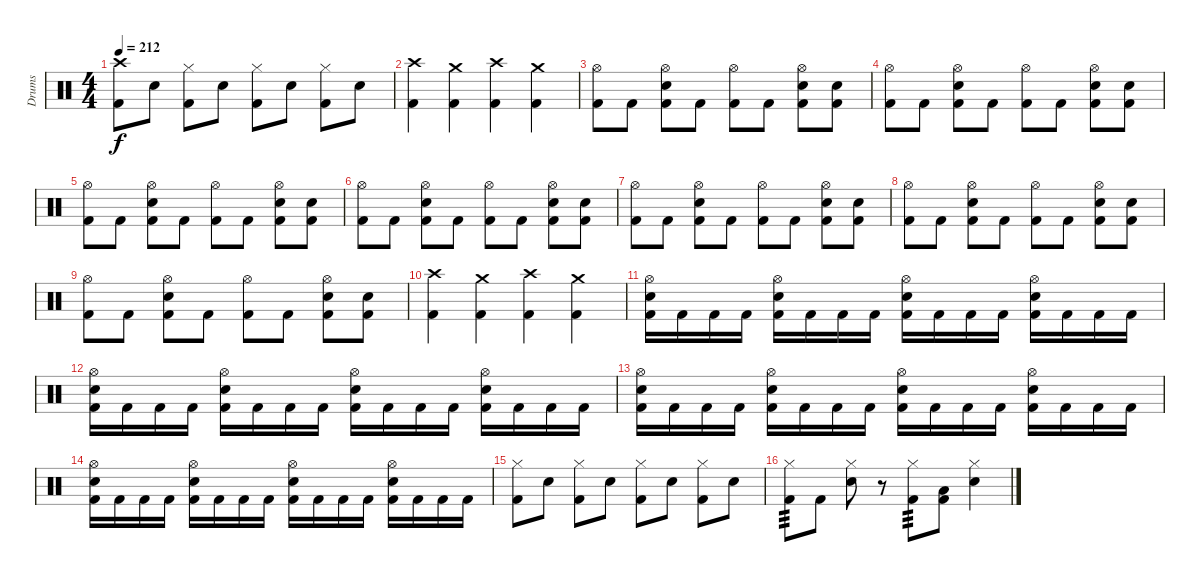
\track ("Drums" "Drums") {instrument percussion}
\staff {score}
\articulation defaults
\ts (4 4)
\tempo 212
\clef neutral
\ks c
("Crash high (hit)" "Kick (hit) 2").8{dy f} "Snare (hit) 2".8 ("Hi-Hat (closed)" "Kick (hit) 2").8 "Snare (hit) 2".8 ("Hi-Hat (closed)" "Kick (hit) 2").8 "Snare (hit) 2".8 ("Hi-Hat (closed)" "Kick (hit) 2").8 "Snare (hit) 2".8 |
("Crash high (hit)" "Kick (hit) 2").4 ("Crash medium (hit)" "Kick (hit) 2").4 ("Crash high (hit)" "Kick (hit) 2").4 ("Crash medium (hit)" "Kick (hit) 2").4 |
("Hi-Hat (open)" "Kick (hit) 2").8 "Kick (hit) 2".8 ("Hi-Hat (open)" "Snare (hit) 2" "Kick (hit) 2").8 "Kick (hit) 2".8 ("Hi-Hat (open)" "Kick (hit) 2").8 "Kick (hit) 2".8 ("Hi-Hat (open)" "Snare (hit) 2" "Kick (hit) 2").8 ("Snare (hit) 2" "Kick (hit) 2").8 |
("Hi-Hat (open)" "Kick (hit) 2").8 "Kick (hit) 2".8 ("Hi-Hat (open)" "Snare (hit) 2" "Kick (hit) 2").8 "Kick (hit) 2".8 ("Hi-Hat (open)" "Kick (hit) 2").8 "Kick (hit) 2".8 ("Hi-Hat (open)" "Snare (hit) 2" "Kick (hit) 2").8 ("Snare (hit) 2" "Kick (hit) 2").8 |
("Hi-Hat (open)" "Kick (hit) 2").8 "Kick (hit) 2".8 ("Hi-Hat (open)" "Snare (hit) 2" "Kick (hit) 2").8 "Kick (hit) 2".8 ("Hi-Hat (open)" "Kick (hit) 2").8 "Kick (hit) 2".8 ("Hi-Hat (open)" "Snare (hit) 2" "Kick (hit) 2").8 ("Snare (hit) 2" "Kick (hit) 2").8 |
("Hi-Hat (open)" "Kick (hit) 2").8 "Kick (hit) 2".8 ("Hi-Hat (open)" "Snare (hit) 2" "Kick (hit) 2").8 "Kick (hit) 2".8 ("Hi-Hat (open)" "Kick (hit) 2").8 "Kick (hit) 2".8 ("Hi-Hat (open)" "Snare (hit) 2" "Kick (hit) 2").8 ("Snare (hit) 2" "Kick (hit) 2").8 |
("Hi-Hat (open)" "Kick (hit) 2").8 "Kick (hit) 2".8 ("Hi-Hat (open)" "Snare (hit) 2" "Kick (hit) 2").8 "Kick (hit) 2".8 ("Hi-Hat (open)" "Kick (hit) 2").8 "Kick (hit) 2".8 ("Hi-Hat (open)" "Snare (hit) 2" "Kick (hit) 2").8 ("Snare (hit) 2" "Kick (hit) 2").8 |
("Hi-Hat (open)" "Kick (hit) 2").8 "Kick (hit) 2".8 ("Hi-Hat (open)" "Snare (hit) 2" "Kick (hit) 2").8 "Kick (hit) 2".8 ("Hi-Hat (open)" "Kick (hit) 2").8 "Kick (hit) 2".8 ("Hi-Hat (open)" "Snare (hit) 2" "Kick (hit) 2").8 ("Snare (hit) 2" "Kick (hit) 2").8 |
("Hi-Hat (open)" "Kick (hit) 2").8 "Kick (hit) 2".8 ("Hi-Hat (open)" "Snare (hit) 2" "Kick (hit) 2").8 "Kick (hit) 2".8 ("Hi-Hat (open)" "Kick (hit) 2").8 "Kick (hit) 2".8 ("Hi-Hat (open)" "Snare (hit) 2" "Kick (hit) 2").8 ("Snare (hit) 2" "Kick (hit) 2").8 |
("Crash high (hit)" "Kick (hit) 2").4 ("Crash medium (hit)" "Kick (hit) 2").4 ("Crash high (hit)" "Kick (hit) 2").4 ("Crash medium (hit)" "Kick (hit) 2").4 |
("Hi-Hat (open)" "Snare (hit) 2" "Kick (hit) 2").16 "Kick (hit) 2".16 "Kick (hit) 2".16 "Kick (hit) 2".16 ("Hi-Hat (open)" "Snare (hit) 2" "Kick (hit) 2").16 "Kick (hit) 2".16 "Kick (hit) 2".16 "Kick (hit) 2".16 ("Hi-Hat (open)" "Snare (hit) 2" "Kick (hit) 2").16 "Kick (hit) 2".16 "Kick (hit) 2".16 "Kick (hit) 2".16 ("Hi-Hat (open)" "Snare (hit) 2" "Kick (hit) 2").16 "Kick (hit) 2".16 "Kick (hit) 2".16 "Kick (hit) 2".16 |
("Hi-Hat (open)" "Snare (hit) 2" "Kick (hit) 2").16 "Kick (hit) 2".16 "Kick (hit) 2".16 "Kick (hit) 2".16 ("Hi-Hat (open)" "Snare (hit) 2" "Kick (hit) 2").16 "Kick (hit) 2".16 "Kick (hit) 2".16 "Kick (hit) 2".16 ("Hi-Hat (open)" "Snare (hit) 2" "Kick (hit) 2").16 "Kick (hit) 2".16 "Kick (hit) 2".16 "Kick (hit) 2".16 ("Hi-Hat (open)" "Snare (hit) 2" "Kick (hit) 2").16 "Kick (hit) 2".16 "Kick (hit) 2".16 "Kick (hit) 2".16 |
("Hi-Hat (open)" "Snare (hit) 2" "Kick (hit) 2").16 "Kick (hit) 2".16 "Kick (hit) 2".16 "Kick (hit) 2".16 ("Hi-Hat (open)" "Snare (hit) 2" "Kick (hit) 2").16 "Kick (hit) 2".16 "Kick (hit) 2".16 "Kick (hit) 2".16 ("Hi-Hat (open)" "Snare (hit) 2" "Kick (hit) 2").16 "Kick (hit) 2".16 "Kick (hit) 2".16 "Kick (hit) 2".16 ("Hi-Hat (open)" "Snare (hit) 2" "Kick (hit) 2").16 "Kick (hit) 2".16 "Kick (hit) 2".16 "Kick (hit) 2".16 |
("Hi-Hat (open)" "Snare (hit) 2" "Kick (hit) 2").16 "Kick (hit) 2".16 "Kick (hit) 2".16 "Kick (hit) 2".16 ("Hi-Hat (open)" "Snare (hit) 2" "Kick (hit) 2").16 "Kick (hit) 2".16 "Kick (hit) 2".16 "Kick (hit) 2".16 ("Hi-Hat (open)" "Snare (hit) 2" "Kick (hit) 2").16 "Kick (hit) 2".16 "Kick (hit) 2".16 "Kick (hit) 2".16 ("Hi-Hat (open)" "Snare (hit) 2" "Kick (hit) 2").16 "Kick (hit) 2".16 "Kick (hit) 2".16 "Kick (hit) 2".16 |
("Hi-Hat (closed)" "Kick (hit) 2").8 "Snare (hit) 2".8 ("Hi-Hat (closed)" "Kick (hit) 2").8 "Snare (hit) 2".8 ("Hi-Hat (closed)" "Kick (hit) 2").8 "Snare (hit) 2".8 ("Hi-Hat (closed)" "Kick (hit) 2").8 "Snare (hit) 2".8 |
("Hi-Hat (closed)" "Kick (hit) 2").8{tp 3} "Kick (hit) 2".8 ("Hi-Hat (closed)" "Snare (hit) 2").8 r.8 ("Hi-Hat (closed)" "Kick (hit) 2").8{tp 3} ("Low Tom (hit)" "Kick (hit) 2").8 ("Hi-Hat (closed)" "Snare (hit) 2").4
